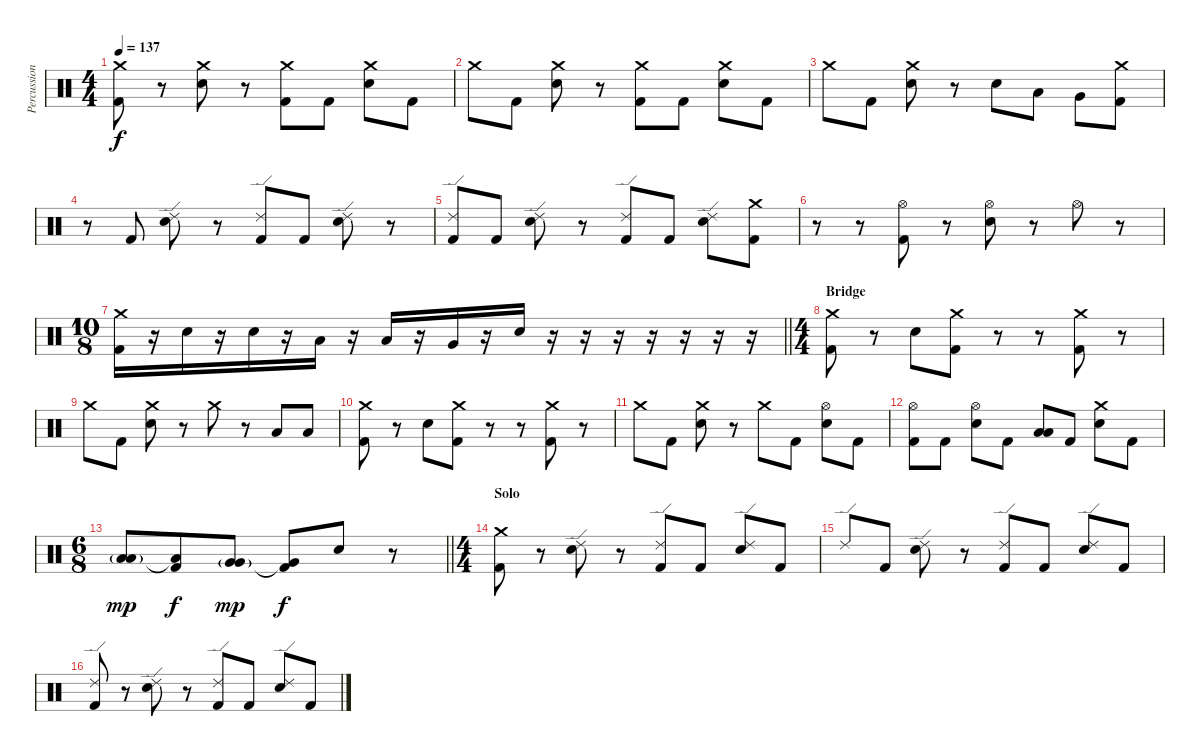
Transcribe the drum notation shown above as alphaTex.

\track ("Percussion" "Percussion") {instrument percussion}
\staff {score}
\articulation defaults
\ts (4 4)
\tempo 137
\clef neutral
\ks c
("Crash medium (hit)" "Kick (hit) 2").8{dy f} r.8 ("Crash medium (hit)" "Electric Snare (hit)").8 r.8 ("Crash medium (hit)" "Kick (hit) 2").8 "Kick (hit) 2".8 ("Crash medium (hit)" "Electric Snare (hit)").8 "Kick (hit) 2".8 |
"Crash medium (hit)".8 "Kick (hit) 2".8 ("Crash medium (hit)" "Electric Snare (hit)").8 r.8 ("Crash medium (hit)" "Kick (hit) 2").8 "Kick (hit) 2".8 ("Crash medium (hit)" "Electric Snare (hit)").8 "Kick (hit) 2".8 |
"Crash medium (hit)".8 "Kick (hit) 2".8 ("Crash medium (hit)" "Electric Snare (hit)").8 r.8 "Electric Snare (hit)".8 "Low Tom (hit)".8 "Very Low Tom (hit)".8 ("Crash medium (hit)" "Kick (hit) 2").8 |
r.8 "Kick (hit) 2".8 ("Ride (edge) 2" "Electric Snare (hit)").8 r.8 ("Ride (edge) 2" "Kick (hit) 2").8 "Kick (hit) 2".8 ("Ride (edge) 2" "Electric Snare (hit)").8 r.8 |
("Ride (edge) 2" "Kick (hit) 2").8 "Kick (hit) 2".8 ("Ride (edge) 2" "Electric Snare (hit)").8 r.8 ("Ride (edge) 2" "Kick (hit) 2").8 "Kick (hit) 2".8 ("Ride (edge) 2" "Electric Snare (hit)").8 ("Crash medium (hit)" "Kick (hit) 2").8 |
r.8 r.8 ("Hi-Hat (open)" "Kick (hit) 2").8 r.8 ("Hi-Hat (open)" "Electric Snare (hit)").8 r.8 "Hi-Hat (open)".8 r.8 |
\ts (10 8)
\barLineRight lightlight
("Crash medium (hit)" "Kick (hit) 2").16 r.16 "Electric Snare (hit)".16 r.16 "Electric Snare (hit)".16 r.16 "Low Tom (hit)".16 r.16 "Low Tom (hit)".16 r.16 "Very Low Tom (hit)".16 r.16 "Electric Snare (hit)".16 r.16 r.16 r.16 r.16 r.16 r.16 r.16 |
\ts (4 4)
\section ("" "Bridge")
("Crash medium (hit)" "Kick (hit) 2").8 r.8 "Electric Snare (hit)".8 ("Crash medium (hit)" "Kick (hit) 2").8 r.8 r.8 ("Crash medium (hit)" "Kick (hit) 2").8 r.8 |
"Crash medium (hit)".8 "Kick (hit) 2".8 ("Crash medium (hit)" "Electric Snare (hit)").8 r.8 "Crash medium (hit)".8 r.8 "Low Tom (hit)".8 "Low Tom (hit)".8 |
("Crash medium (hit)" "Kick (hit) 2").8 r.8 "Electric Snare (hit)".8 ("Crash medium (hit)" "Kick (hit) 2").8 r.8 r.8 ("Crash medium (hit)" "Kick (hit) 2").8 r.8 |
"Crash medium (hit)".8 "Kick (hit) 2".8 ("Crash medium (hit)" "Electric Snare (hit)").8 r.8 "Crash medium (hit)".8 "Kick (hit) 2".8 ("Hi-Hat (open)" "Electric Snare (hit)").8 "Kick (hit) 2".8 |
("Hi-Hat (open)" "Kick (hit) 2").8 "Kick (hit) 2".8 ("Hi-Hat (open)" "Electric Snare (hit)").8 "Kick (hit) 2".8 ("Low Tom (hit)" "Low Tom (hit)").8 "Kick (hit) 2".8 ("Crash medium (hit)" "Electric Snare (hit)").8 "Kick (hit) 2".8 |
\ts (6 8)
\barLineRight lightlight
("Low Tom (hit)"{g} "Low Tom (hit)").8{dy mp} ("Low Tom (hit)"{t} "Kick (hit) 2").8{dy f} ("Very Low Tom (hit)"{g} "Very Low Tom (hit)").8{dy mp} ("Very Low Tom (hit)"{t} "Kick (hit) 2").8{dy f} "Electric Snare (hit)".8 r.8 |
\ts (4 4)
\section ("" "Solo")
("Crash medium (hit)" "Kick (hit) 2").8 r.8 ("Ride (edge) 2" "Electric Snare (hit)").8 r.8 ("Ride (edge) 2" "Kick (hit) 2").8 "Kick (hit) 2".8 ("Ride (edge) 2" "Electric Snare (hit)").8 "Kick (hit) 2".8 |
"Ride (edge) 2".8 "Kick (hit) 2".8 ("Ride (edge) 2" "Electric Snare (hit)").8 r.8 ("Ride (edge) 2" "Kick (hit) 2").8 "Kick (hit) 2".8 ("Ride (edge) 2" "Electric Snare (hit)").8 "Kick (hit) 2".8 |
("Ride (edge) 2" "Kick (hit) 2").8 r.8 ("Ride (edge) 2" "Electric Snare (hit)").8 r.8 ("Ride (edge) 2" "Kick (hit) 2").8 "Kick (hit) 2".8 ("Ride (edge) 2" "Electric Snare (hit)").8 "Kick (hit) 2".8
